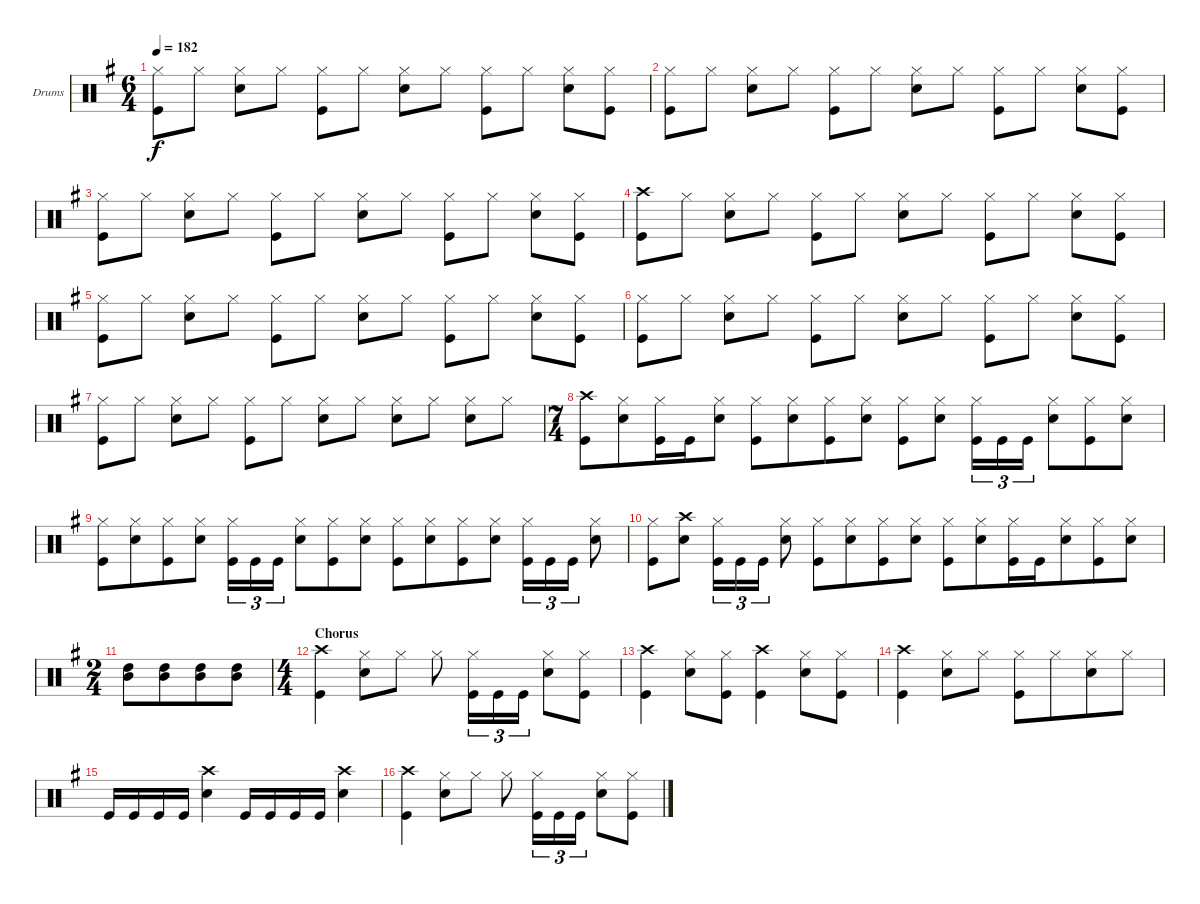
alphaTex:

\bracketExtendMode groupsimilarinstruments
\firstSystemTrackNameOrientation horizontal
\otherSystemsTrackNameOrientation horizontal
\track ("Drumkit" "Drums") {instrument percussion}
\staff {score}
\articulation defaults
\ts (6 4)
\tempo 182
\clef neutral
\scale
1.04288
\ks g
("Hi-Hat (closed)" "Kick (hit)").8{dy f} "Hi-Hat (closed)".8 ("Snare (hit) 2" "Hi-Hat (closed)").8 "Hi-Hat (closed)".8 ("Kick (hit)" "Hi-Hat (closed)").8 "Hi-Hat (closed)".8 ("Snare (hit) 2" "Hi-Hat (closed)").8 "Hi-Hat (closed)".8 ("Kick (hit)" "Hi-Hat (closed)").8 "Hi-Hat (closed)".8 ("Snare (hit) 2" "Hi-Hat (closed)").8 ("Kick (hit)" "Hi-Hat (closed)").8 |
\scale
0.957125 ("Hi-Hat (closed)" "Kick (hit)").8 "Hi-Hat (closed)".8 ("Snare (hit) 2" "Hi-Hat (closed)").8 "Hi-Hat (closed)".8 ("Kick (hit)" "Hi-Hat (closed)").8 "Hi-Hat (closed)".8 ("Snare (hit) 2" "Hi-Hat (closed)").8 "Hi-Hat (closed)".8 ("Kick (hit)" "Hi-Hat (closed)").8 "Hi-Hat (closed)".8 ("Snare (hit) 2" "Hi-Hat (closed)").8 ("Kick (hit)" "Hi-Hat (closed)").8 |
\scale
1.04288 ("Hi-Hat (closed)" "Kick (hit)").8 "Hi-Hat (closed)".8 ("Snare (hit) 2" "Hi-Hat (closed)").8 "Hi-Hat (closed)".8 ("Kick (hit)" "Hi-Hat (closed)").8 "Hi-Hat (closed)".8 ("Snare (hit) 2" "Hi-Hat (closed)").8 "Hi-Hat (closed)".8 ("Kick (hit)" "Hi-Hat (closed)").8 "Hi-Hat (closed)".8 ("Snare (hit) 2" "Hi-Hat (closed)").8 ("Kick (hit)" "Hi-Hat (closed)").8 |
\scale
0.957125 ("Kick (hit)" "Crash high (hit)").8 "Hi-Hat (closed)".8 ("Snare (hit) 2" "Hi-Hat (closed)").8 "Hi-Hat (closed)".8 ("Kick (hit)" "Hi-Hat (closed)").8 "Hi-Hat (closed)".8 ("Snare (hit) 2" "Hi-Hat (closed)").8 "Hi-Hat (closed)".8 ("Kick (hit)" "Hi-Hat (closed)").8 "Hi-Hat (closed)".8 ("Snare (hit) 2" "Hi-Hat (closed)").8 ("Kick (hit)" "Hi-Hat (closed)").8 |
\scale
1.04288 ("Hi-Hat (closed)" "Kick (hit)").8 "Hi-Hat (closed)".8 ("Snare (hit) 2" "Hi-Hat (closed)").8 "Hi-Hat (closed)".8 ("Kick (hit)" "Hi-Hat (closed)").8 "Hi-Hat (closed)".8 ("Snare (hit) 2" "Hi-Hat (closed)").8 "Hi-Hat (closed)".8 ("Kick (hit)" "Hi-Hat (closed)").8 "Hi-Hat (closed)".8 ("Snare (hit) 2" "Hi-Hat (closed)").8 ("Kick (hit)" "Hi-Hat (closed)").8 |
\scale
0.957125 ("Hi-Hat (closed)" "Kick (hit)").8 "Hi-Hat (closed)".8 ("Snare (hit) 2" "Hi-Hat (closed)").8 "Hi-Hat (closed)".8 ("Kick (hit)" "Hi-Hat (closed)").8 "Hi-Hat (closed)".8 ("Snare (hit) 2" "Hi-Hat (closed)").8 "Hi-Hat (closed)".8 ("Kick (hit)" "Hi-Hat (closed)").8 "Hi-Hat (closed)".8 ("Snare (hit) 2" "Hi-Hat (closed)").8 ("Kick (hit)" "Hi-Hat (closed)").8 |
\scale
1.04288 ("Hi-Hat (closed)" "Kick (hit)").8 "Hi-Hat (closed)".8 ("Snare (hit) 2" "Hi-Hat (closed)").8 "Hi-Hat (closed)".8 ("Kick (hit)" "Hi-Hat (closed)").8 "Hi-Hat (closed)".8 ("Snare (hit) 2" "Hi-Hat (closed)").8 "Hi-Hat (closed)".8 ("Snare (hit) 2" "Hi-Hat (closed)").8 "Hi-Hat (closed)".8 ("Snare (hit) 2" "Hi-Hat (closed)").8 "Hi-Hat (closed)".8 |
\ts (7 4)
\beaming (8 4 4 6)
\scale
0.957125 ("Crash high (hit)" "Kick (hit)").8 ("Snare (hit) 2" "Hi-Hat (closed)").8 ("Hi-Hat (closed)" "Kick (hit)").16 "Kick (hit)".16 ("Snare (hit) 2" "Hi-Hat (closed)").8 ("Hi-Hat (closed)" "Kick (hit)").8 ("Snare (hit) 2" "Hi-Hat (closed)").8 ("Hi-Hat (closed)" "Kick (hit)").8 ("Snare (hit) 2" "Hi-Hat (closed)").8 ("Hi-Hat (closed)" "Kick (hit)").8 ("Snare (hit) 2" "Hi-Hat (closed)").8 ("Hi-Hat (closed)" "Kick (hit)").16{tu (3 2)} "Kick (hit)".16{tu (3 2)} "Kick (hit)".16{tu (3 2)} ("Snare (hit) 2" "Hi-Hat (closed)").8 ("Hi-Hat (closed)" "Kick (hit)").8 ("Snare (hit) 2" "Hi-Hat (closed)").8 |
\scale
1.04288 ("Hi-Hat (closed)" "Kick (hit)").8 ("Snare (hit) 2" "Hi-Hat (closed)").8 ("Hi-Hat (closed)" "Kick (hit)").8 ("Snare (hit) 2" "Hi-Hat (closed)").8 ("Hi-Hat (closed)" "Kick (hit)").16{tu (3 2)} "Kick (hit)".16{tu (3 2)} "Kick (hit)".16{tu (3 2)} ("Snare (hit) 2" "Hi-Hat (closed)").8 ("Hi-Hat (closed)" "Kick (hit)").8 ("Snare (hit) 2" "Hi-Hat (closed)").8 ("Hi-Hat (closed)" "Kick (hit)").8 ("Snare (hit) 2" "Hi-Hat (closed)").8 ("Kick (hit)" "Hi-Hat (closed)").8 ("Snare (hit) 2" "Hi-Hat (closed)").8 ("Kick (hit)" "Hi-Hat (closed)").16{tu (3 2)} "Kick (hit)".16{tu (3 2)} "Kick (hit)".16{tu (3 2)} ("Snare (hit) 2" "Hi-Hat (closed)").8 |
\scale
0.957125 ("Kick (hit)" "Hi-Hat (closed)").8 ("Crash high (hit)" "Snare (hit) 2").8 ("Kick (hit)" "Hi-Hat (closed)").16{tu (3 2)} "Kick (hit)".16{tu (3 2)} "Kick (hit)".16{tu (3 2)} ("Snare (hit) 2" "Hi-Hat (closed)").8 ("Hi-Hat (closed)" "Kick (hit)").8 ("Hi-Hat (closed)" "Snare (hit) 2").8 ("Hi-Hat (closed)" "Kick (hit)").8 ("Snare (hit) 2" "Hi-Hat (closed)").8 ("Hi-Hat (closed)" "Kick (hit)").8 ("Snare (hit) 2" "Hi-Hat (closed)").8 ("Hi-Hat (closed)" "Kick (hit)").16 "Kick (hit)".16 ("Snare (hit) 2" "Hi-Hat (closed)").8 ("Hi-Hat (closed)" "Kick (hit)").8 ("Snare (hit) 2" "Hi-Hat (closed)").8 |
\ts (2 4)
\beaming (8 4 4 6)
\scale
1.07314 ("High Tom (hit)" "Mid Tom (hit)").8 ("High Tom (hit)" "Mid Tom (hit)").8 ("High Tom (hit)" "Mid Tom (hit)").8 ("High Tom (hit)" "Mid Tom (hit)").8 |
\ts (4 4)
\beaming (8 4 4 6)
\section ("" "Chorus")
\scale
0.92686 ("Kick (hit)" "Crash high (hit)").4 ("Snare (hit) 2" "Hi-Hat (closed)").8 "Hi-Hat (closed)".8 "Hi-Hat (closed)".8 ("Kick (hit)" "Hi-Hat (closed)").16{tu (3 2)} "Kick (hit)".16{tu (3 2)} "Kick (hit)".16{tu (3 2)} ("Snare (hit) 2" "Hi-Hat (closed)").8 ("Kick (hit)" "Hi-Hat (closed)").8 |
\scale
1.04288 ("Kick (hit)" "Crash high (hit)").4 ("Hi-Hat (closed)" "Snare (hit) 2").8 ("Kick (hit)" "Hi-Hat (closed)").8 ("Crash high (hit)" "Kick (hit)").4 ("Hi-Hat (closed)" "Snare (hit) 2").8 ("Kick (hit)" "Hi-Hat (closed)").8 |
\scale
0.957125 ("Kick (hit)" "Crash high (hit)").4 ("Hi-Hat (closed)" "Snare (hit) 2").8 "Hi-Hat (closed)".8 ("Hi-Hat (closed)" "Kick (hit)").8 "Hi-Hat (closed)".8 ("Snare (hit) 2" "Hi-Hat (closed)").8 "Hi-Hat (closed)".8 |
\scale
1.04288 "Kick (hit)".16 "Kick (hit)".16 "Kick (hit)".16 "Kick (hit)".16 ("Crash high (hit)" "Snare (hit) 2").4 "Kick (hit)".16 "Kick (hit)".16 "Kick (hit)".16 "Kick (hit)".16 ("Snare (hit) 2" "Crash high (hit)").4 |
\scale
0.957125 ("Kick (hit)" "Crash high (hit)").4 ("Snare (hit) 2" "Hi-Hat (closed)").8 "Hi-Hat (closed)".8 "Hi-Hat (closed)".8 ("Kick (hit)" "Hi-Hat (closed)").16{tu (3 2)} "Kick (hit)".16{tu (3 2)} "Kick (hit)".16{tu (3 2)} ("Snare (hit) 2" "Hi-Hat (closed)").8 ("Kick (hit)" "Hi-Hat (closed)").8
